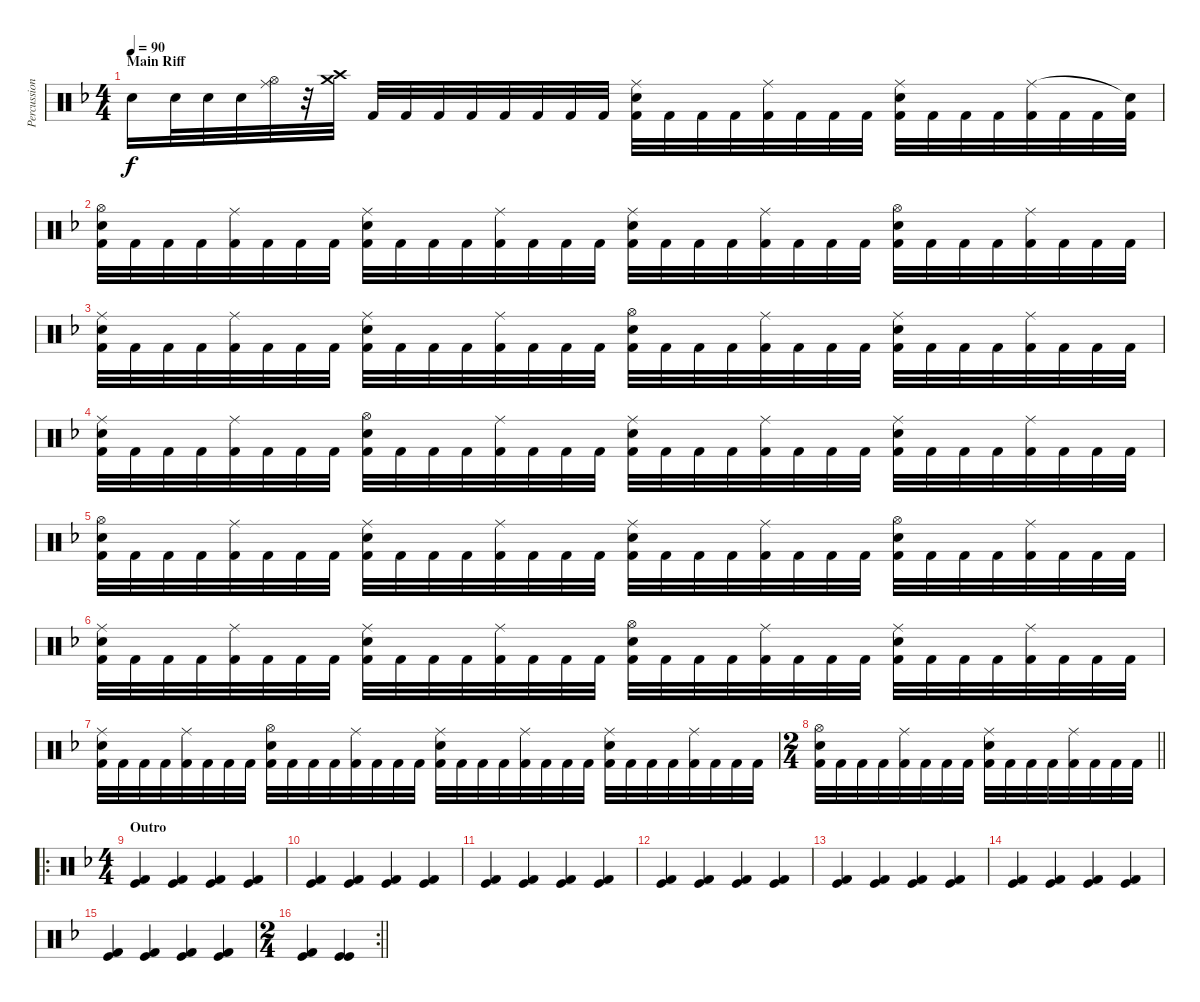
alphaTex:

\track ("Percussion" "Percussion") {instrument percussion}
\staff {score}
\articulation defaults
\ts (4 4)
\section ("" "Main Riff")
\tempo 90
\clef neutral
\ks f "Electric Snare (hit)".16{dy f} "Electric Snare (hit)".32 "Electric Snare (hit)".32 "Electric Snare (hit)".32
("Hi-Hat (open)" "Ride (middle)").32 r.32 ("Crash high (hit)" "Crash medium (hit)").32 "Kick (hit) 2".32 "Kick (hit) 2".32 "Kick (hit) 2".32 "Kick (hit) 2".32 "Kick (hit) 2".32 "Kick (hit) 2".32 "Kick (hit) 2".32 "Kick (hit) 2".32 ("Kick (hit) 2" "Ride (middle)" "Electric Snare (hit)").32 "Kick (hit) 2".32 "Kick (hit) 2".32 "Kick (hit) 2".32 ("Kick (hit) 2" "Ride (middle)").32 "Kick (hit) 2".32 "Kick (hit) 2".32 "Kick (hit) 2".32 ("Kick (hit) 2" "Ride (middle)" "Electric Snare (hit)").32 "Kick (hit) 2".32 "Kick (hit) 2".32 "Kick (hit) 2".32 ("Kick (hit) 2" "Ride (middle)").32 "Kick (hit) 2".32 "Kick (hit) 2".32 ("Kick (hit) 2" "Snare (hit)"{t}).32 |
("Kick (hit) 2" "Hi-Hat (open)" "Electric Snare (hit)").32 "Kick (hit) 2".32 "Kick (hit) 2".32 "Kick (hit) 2".32 ("Kick (hit) 2" "Ride (middle)").32 "Kick (hit) 2".32 "Kick (hit) 2".32 "Kick (hit) 2".32 ("Kick (hit) 2" "Ride (middle)" "Electric Snare (hit)").32 "Kick (hit) 2".32 "Kick (hit) 2".32 "Kick (hit) 2".32 ("Kick (hit) 2" "Ride (middle)").32 "Kick (hit) 2".32 "Kick (hit) 2".32 "Kick (hit) 2".32 ("Kick (hit) 2" "Ride (middle)" "Electric Snare (hit)").32 "Kick (hit) 2".32 "Kick (hit) 2".32 "Kick (hit) 2".32 ("Kick (hit) 2" "Ride (middle)").32 "Kick (hit) 2".32 "Kick (hit) 2".32 "Kick (hit) 2".32 ("Kick (hit) 2" "Hi-Hat (open)" "Electric Snare (hit)").32 "Kick (hit) 2".32 "Kick (hit) 2".32 "Kick (hit) 2".32 ("Kick (hit) 2" "Ride (middle)").32 "Kick (hit) 2".32 "Kick (hit) 2".32 "Kick (hit) 2".32 |
("Kick (hit) 2" "Ride (middle)" "Electric Snare (hit)").32 "Kick (hit) 2".32 "Kick (hit) 2".32 "Kick (hit) 2".32 ("Kick (hit) 2" "Ride (middle)").32 "Kick (hit) 2".32 "Kick (hit) 2".32 "Kick (hit) 2".32 ("Kick (hit) 2" "Ride (middle)" "Electric Snare (hit)").32 "Kick (hit) 2".32 "Kick (hit) 2".32 "Kick (hit) 2".32 ("Kick (hit) 2" "Ride (middle)").32 "Kick (hit) 2".32 "Kick (hit) 2".32 "Kick (hit) 2".32 ("Kick (hit) 2" "Hi-Hat (open)" "Electric Snare (hit)").32 "Kick (hit) 2".32 "Kick (hit) 2".32 "Kick (hit) 2".32 ("Kick (hit) 2" "Ride (middle)").32 "Kick (hit) 2".32 "Kick (hit) 2".32 "Kick (hit) 2".32 ("Kick (hit) 2" "Ride (middle)" "Electric Snare (hit)").32 "Kick (hit) 2".32 "Kick (hit) 2".32 "Kick (hit) 2".32 ("Kick (hit) 2" "Ride (middle)").32 "Kick (hit) 2".32 "Kick (hit) 2".32 "Kick (hit) 2".32 |
("Kick (hit) 2" "Ride (middle)" "Electric Snare (hit)").32 "Kick (hit) 2".32 "Kick (hit) 2".32 "Kick (hit) 2".32 ("Kick (hit) 2" "Ride (middle)").32 "Kick (hit) 2".32 "Kick (hit) 2".32 "Kick (hit) 2".32 ("Kick (hit) 2" "Hi-Hat (open)" "Electric Snare (hit)").32 "Kick (hit) 2".32 "Kick (hit) 2".32 "Kick (hit) 2".32 ("Kick (hit) 2" "Ride (middle)").32 "Kick (hit) 2".32 "Kick (hit) 2".32 "Kick (hit) 2".32 ("Kick (hit) 2" "Ride (middle)" "Electric Snare (hit)").32 "Kick (hit) 2".32 "Kick (hit) 2".32 "Kick (hit) 2".32 ("Kick (hit) 2" "Ride (middle)").32 "Kick (hit) 2".32 "Kick (hit) 2".32 "Kick (hit) 2".32 ("Kick (hit) 2" "Ride (middle)" "Electric Snare (hit)").32 "Kick (hit) 2".32 "Kick (hit) 2".32 "Kick (hit) 2".32 ("Kick (hit) 2" "Ride (middle)").32 "Kick (hit) 2".32 "Kick (hit) 2".32 "Kick (hit) 2".32 |
("Kick (hit) 2" "Hi-Hat (open)" "Electric Snare (hit)").32 "Kick (hit) 2".32 "Kick (hit) 2".32 "Kick (hit) 2".32 ("Kick (hit) 2" "Ride (middle)").32 "Kick (hit) 2".32 "Kick (hit) 2".32 "Kick (hit) 2".32 ("Kick (hit) 2" "Ride (middle)" "Electric Snare (hit)").32 "Kick (hit) 2".32 "Kick (hit) 2".32 "Kick (hit) 2".32 ("Kick (hit) 2" "Ride (middle)").32 "Kick (hit) 2".32 "Kick (hit) 2".32 "Kick (hit) 2".32 ("Kick (hit) 2" "Ride (middle)" "Electric Snare (hit)").32 "Kick (hit) 2".32 "Kick (hit) 2".32 "Kick (hit) 2".32 ("Kick (hit) 2" "Ride (middle)").32 "Kick (hit) 2".32 "Kick (hit) 2".32 "Kick (hit) 2".32 ("Kick (hit) 2" "Hi-Hat (open)" "Electric Snare (hit)").32 "Kick (hit) 2".32 "Kick (hit) 2".32 "Kick (hit) 2".32 ("Kick (hit) 2" "Ride (middle)").32 "Kick (hit) 2".32 "Kick (hit) 2".32 "Kick (hit) 2".32 |
("Kick (hit) 2" "Ride (middle)" "Electric Snare (hit)").32 "Kick (hit) 2".32 "Kick (hit) 2".32 "Kick (hit) 2".32 ("Kick (hit) 2" "Ride (middle)").32 "Kick (hit) 2".32 "Kick (hit) 2".32 "Kick (hit) 2".32 ("Kick (hit) 2" "Ride (middle)" "Electric Snare (hit)").32 "Kick (hit) 2".32 "Kick (hit) 2".32 "Kick (hit) 2".32 ("Kick (hit) 2" "Ride (middle)").32 "Kick (hit) 2".32 "Kick (hit) 2".32 "Kick (hit) 2".32 ("Kick (hit) 2" "Hi-Hat (open)" "Electric Snare (hit)").32 "Kick (hit) 2".32 "Kick (hit) 2".32 "Kick (hit) 2".32 ("Kick (hit) 2" "Ride (middle)").32 "Kick (hit) 2".32 "Kick (hit) 2".32 "Kick (hit) 2".32 ("Kick (hit) 2" "Ride (middle)" "Electric Snare (hit)").32 "Kick (hit) 2".32 "Kick (hit) 2".32 "Kick (hit) 2".32 ("Kick (hit) 2" "Ride (middle)").32 "Kick (hit) 2".32 "Kick (hit) 2".32 "Kick (hit) 2".32 |
("Kick (hit) 2" "Ride (middle)" "Electric Snare (hit)").32 "Kick (hit) 2".32 "Kick (hit) 2".32 "Kick (hit) 2".32 ("Kick (hit) 2" "Ride (middle)").32 "Kick (hit) 2".32 "Kick (hit) 2".32 "Kick (hit) 2".32 ("Kick (hit) 2" "Hi-Hat (open)" "Electric Snare (hit)").32 "Kick (hit) 2".32 "Kick (hit) 2".32 "Kick (hit) 2".32 ("Kick (hit) 2" "Ride (middle)").32 "Kick (hit) 2".32 "Kick (hit) 2".32 "Kick (hit) 2".32 ("Kick (hit) 2" "Ride (middle)" "Electric Snare (hit)").32 "Kick (hit) 2".32 "Kick (hit) 2".32 "Kick (hit) 2".32 ("Kick (hit) 2" "Ride (middle)").32 "Kick (hit) 2".32 "Kick (hit) 2".32 "Kick (hit) 2".32 ("Kick (hit) 2" "Ride (middle)" "Electric Snare (hit)").32 "Kick (hit) 2".32 "Kick (hit) 2".32 "Kick (hit) 2".32 ("Kick (hit) 2" "Ride (middle)").32 "Kick (hit) 2".32 "Kick (hit) 2".32 "Kick (hit) 2".32 |
\ts (2 4)
\barLineRight lightlight
("Kick (hit) 2" "Hi-Hat (open)" "Electric Snare (hit)").32 "Kick (hit) 2".32 "Kick (hit) 2".32 "Kick (hit) 2".32 ("Kick (hit) 2" "Ride (middle)").32 "Kick (hit) 2".32 "Kick (hit) 2".32 "Kick (hit) 2".32 ("Kick (hit) 2" "Ride (middle)" "Electric Snare (hit)").32 "Kick (hit) 2".32 "Kick (hit) 2".32 "Kick (hit) 2".32 ("Kick (hit) 2" "Ride (middle)").32 "Kick (hit) 2".32 "Kick (hit) 2".32 "Kick (hit) 2".32 |
\ro
\ts (4 4)
\section ("" "Outro")
("Kick (hit) 2" "Kick (hit)").4 ("Kick (hit) 2" "Kick (hit)").4 ("Kick (hit) 2" "Kick (hit)").4 ("Kick (hit) 2" "Kick (hit)").4 |
("Kick (hit) 2" "Kick (hit)").4 ("Kick (hit) 2" "Kick (hit)").4 ("Kick (hit) 2" "Kick (hit)").4 ("Kick (hit) 2" "Kick (hit)").4 |
("Kick (hit) 2" "Kick (hit)").4 ("Kick (hit) 2" "Kick (hit)").4 ("Kick (hit) 2" "Kick (hit)").4 ("Kick (hit) 2" "Kick (hit)").4 |
("Kick (hit) 2" "Kick (hit)").4 ("Kick (hit) 2" "Kick (hit)").4 ("Kick (hit) 2" "Kick (hit)").4 ("Kick (hit) 2" "Kick (hit)").4 |
("Kick (hit) 2" "Kick (hit)").4 ("Kick (hit) 2" "Kick (hit)").4 ("Kick (hit) 2" "Kick (hit)").4 ("Kick (hit) 2" "Kick (hit)").4 |
("Kick (hit) 2" "Kick (hit)").4 ("Kick (hit) 2" "Kick (hit)").4 ("Kick (hit) 2" "Kick (hit)").4 ("Kick (hit) 2" "Kick (hit)").4 |
("Kick (hit) 2" "Kick (hit)").4 ("Kick (hit) 2" "Kick (hit)").4 ("Kick (hit) 2" "Kick (hit)").4 ("Kick (hit) 2" "Kick (hit)").4 |
\rc 2
\ts (2 4)
\barLineRight lightlight
("Kick (hit) 2" "Kick (hit)").4 ("Kick (hit)" "Kick (hit)").4
